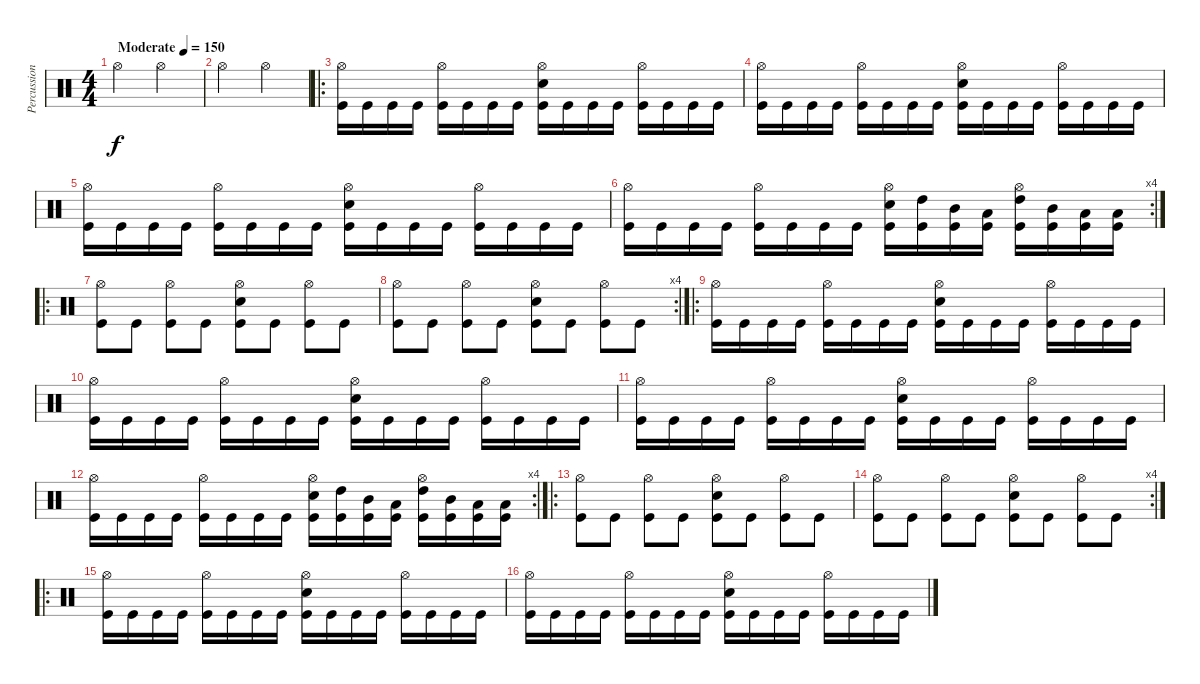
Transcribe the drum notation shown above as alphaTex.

\track ("Percussion" "Percussion") {instrument percussion}
\staff {score}
\articulation defaults
\ts (4 4)
\tempo (150 "Moderate")
\clef neutral
\ks c "Hi-Hat (open)".2{dy f} "Hi-Hat (open)".2
|
"Hi-Hat (open)".2 "Hi-Hat (open)".2 |
\ro
("Hi-Hat (open)" "Kick (hit)").16 "Kick (hit)".16 "Kick (hit)".16 "Kick (hit)".16 ("Hi-Hat (open)" "Kick (hit)").16 "Kick (hit)".16 "Kick (hit)".16 "Kick (hit)".16 ("Hi-Hat (open)" "Electric Snare (hit)" "Kick (hit)").16 "Kick (hit)".16 "Kick (hit)".16 "Kick (hit)".16 ("Hi-Hat (open)" "Kick (hit)").16 "Kick (hit)".16 "Kick (hit)".16 "Kick (hit)".16 |
("Hi-Hat (open)" "Kick (hit)").16 "Kick (hit)".16 "Kick (hit)".16 "Kick (hit)".16 ("Hi-Hat (open)" "Kick (hit)").16 "Kick (hit)".16 "Kick (hit)".16 "Kick (hit)".16 ("Hi-Hat (open)" "Electric Snare (hit)" "Kick (hit)").16 "Kick (hit)".16 "Kick (hit)".16 "Kick (hit)".16 ("Hi-Hat (open)" "Kick (hit)").16 "Kick (hit)".16 "Kick (hit)".16 "Kick (hit)".16 |
("Hi-Hat (open)" "Kick (hit)").16 "Kick (hit)".16 "Kick (hit)".16 "Kick (hit)".16 ("Hi-Hat (open)" "Kick (hit)").16 "Kick (hit)".16 "Kick (hit)".16 "Kick (hit)".16 ("Hi-Hat (open)" "Electric Snare (hit)" "Kick (hit)").16 "Kick (hit)".16 "Kick (hit)".16 "Kick (hit)".16 ("Hi-Hat (open)" "Kick (hit)").16 "Kick (hit)".16 "Kick (hit)".16 "Kick (hit)".16 |
\rc 4
("Hi-Hat (open)" "Kick (hit)").16 "Kick (hit)".16 "Kick (hit)".16 "Kick (hit)".16 ("Hi-Hat (open)" "Kick (hit)").16 "Kick (hit)".16 "Kick (hit)".16 "Kick (hit)".16 ("Hi-Hat (open)" "Electric Snare (hit)" "Kick (hit)").16 ("High Tom (hit)" "Kick (hit)").16 ("Mid Tom (hit)" "Kick (hit)").16 ("Low Tom (hit)" "Kick (hit)").16 ("Hi-Hat (open)" "High Tom (hit)" "Kick (hit)").16 ("Mid Tom (hit)" "Kick (hit)").16 ("Low Tom (hit)" "Kick (hit)").16 ("Low Tom (hit)" "Kick (hit)").16 |
\ro
("Hi-Hat (open)" "Kick (hit)").8 "Kick (hit)".8 ("Hi-Hat (open)" "Kick (hit)").8 "Kick (hit)".8 ("Hi-Hat (open)" "Electric Snare (hit)" "Kick (hit)").8 "Kick (hit)".8 ("Hi-Hat (open)" "Kick (hit)").8 "Kick (hit)".8 |
\rc 4
("Hi-Hat (open)" "Kick (hit)").8 "Kick (hit)".8 ("Hi-Hat (open)" "Kick (hit)").8 "Kick (hit)".8 ("Hi-Hat (open)" "Electric Snare (hit)" "Kick (hit)").8 "Kick (hit)".8 ("Hi-Hat (open)" "Kick (hit)").8 "Kick (hit)".8 |
\ro
("Hi-Hat (open)" "Kick (hit)").16 "Kick (hit)".16 "Kick (hit)".16 "Kick (hit)".16 ("Hi-Hat (open)" "Kick (hit)").16 "Kick (hit)".16 "Kick (hit)".16 "Kick (hit)".16 ("Hi-Hat (open)" "Electric Snare (hit)" "Kick (hit)").16 "Kick (hit)".16 "Kick (hit)".16 "Kick (hit)".16 ("Hi-Hat (open)" "Kick (hit)").16 "Kick (hit)".16 "Kick (hit)".16 "Kick (hit)".16 |
("Hi-Hat (open)" "Kick (hit)").16 "Kick (hit)".16 "Kick (hit)".16 "Kick (hit)".16 ("Hi-Hat (open)" "Kick (hit)").16 "Kick (hit)".16 "Kick (hit)".16 "Kick (hit)".16 ("Hi-Hat (open)" "Electric Snare (hit)" "Kick (hit)").16 "Kick (hit)".16 "Kick (hit)".16 "Kick (hit)".16 ("Hi-Hat (open)" "Kick (hit)").16 "Kick (hit)".16 "Kick (hit)".16 "Kick (hit)".16 |
("Hi-Hat (open)" "Kick (hit)").16 "Kick (hit)".16 "Kick (hit)".16 "Kick (hit)".16 ("Hi-Hat (open)" "Kick (hit)").16 "Kick (hit)".16 "Kick (hit)".16 "Kick (hit)".16 ("Hi-Hat (open)" "Electric Snare (hit)" "Kick (hit)").16 "Kick (hit)".16 "Kick (hit)".16 "Kick (hit)".16 ("Hi-Hat (open)" "Kick (hit)").16 "Kick (hit)".16 "Kick (hit)".16 "Kick (hit)".16 |
\rc 4
("Hi-Hat (open)" "Kick (hit)").16 "Kick (hit)".16 "Kick (hit)".16 "Kick (hit)".16 ("Hi-Hat (open)" "Kick (hit)").16 "Kick (hit)".16 "Kick (hit)".16 "Kick (hit)".16 ("Hi-Hat (open)" "Electric Snare (hit)" "Kick (hit)").16 ("High Tom (hit)" "Kick (hit)").16 ("Mid Tom (hit)" "Kick (hit)").16 ("Low Tom (hit)" "Kick (hit)").16 ("Hi-Hat (open)" "High Tom (hit)" "Kick (hit)").16 ("Mid Tom (hit)" "Kick (hit)").16 ("Low Tom (hit)" "Kick (hit)").16 ("Low Tom (hit)" "Kick (hit)").16 |
\ro
("Hi-Hat (open)" "Kick (hit)").8 "Kick (hit)".8 ("Hi-Hat (open)" "Kick (hit)").8 "Kick (hit)".8 ("Hi-Hat (open)" "Electric Snare (hit)" "Kick (hit)").8 "Kick (hit)".8 ("Hi-Hat (open)" "Kick (hit)").8 "Kick (hit)".8 |
\rc 4
("Hi-Hat (open)" "Kick (hit)").8 "Kick (hit)".8 ("Hi-Hat (open)" "Kick (hit)").8 "Kick (hit)".8 ("Hi-Hat (open)" "Electric Snare (hit)" "Kick (hit)").8 "Kick (hit)".8 ("Hi-Hat (open)" "Kick (hit)").8 "Kick (hit)".8 |
\ro
("Hi-Hat (open)" "Kick (hit)").16 "Kick (hit)".16 "Kick (hit)".16 "Kick (hit)".16 ("Hi-Hat (open)" "Kick (hit)").16 "Kick (hit)".16 "Kick (hit)".16 "Kick (hit)".16 ("Hi-Hat (open)" "Electric Snare (hit)" "Kick (hit)").16 "Kick (hit)".16 "Kick (hit)".16 "Kick (hit)".16 ("Hi-Hat (open)" "Kick (hit)").16 "Kick (hit)".16 "Kick (hit)".16 "Kick (hit)".16 |
("Hi-Hat (open)" "Kick (hit)").16 "Kick (hit)".16 "Kick (hit)".16 "Kick (hit)".16 ("Hi-Hat (open)" "Kick (hit)").16 "Kick (hit)".16 "Kick (hit)".16 "Kick (hit)".16 ("Hi-Hat (open)" "Electric Snare (hit)" "Kick (hit)").16 "Kick (hit)".16 "Kick (hit)".16 "Kick (hit)".16 ("Hi-Hat (open)" "Kick (hit)").16 "Kick (hit)".16 "Kick (hit)".16 "Kick (hit)".16
